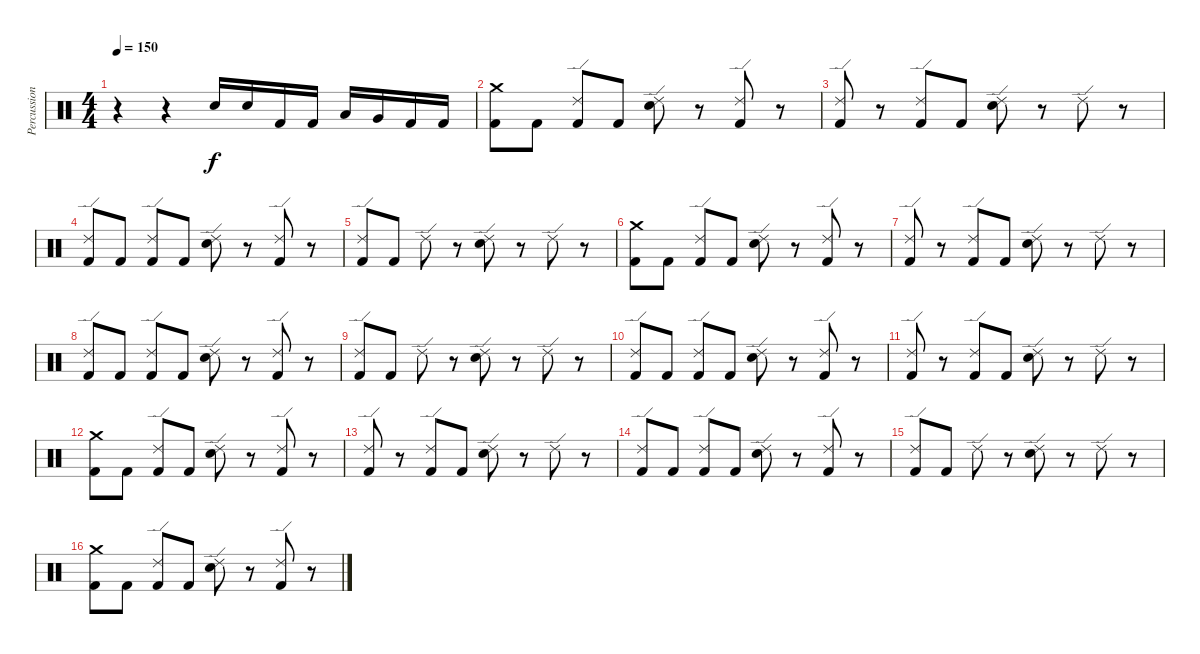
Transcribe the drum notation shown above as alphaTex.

\track ("Percussion" "Percussion") {instrument percussion}
\staff {score}
\articulation defaults
\ts (4 4)
\tempo 150
\clef neutral
\ks c
r.4{dy f} r.4 "Electric Snare (hit)".16 "Electric Snare (hit)".16 "Kick (hit) 2".16 "Kick (hit) 2".16 "Low Tom (hit)".16 "Very Low Tom (hit)".16 "Kick (hit) 2".16 "Kick (hit) 2".16 |
("Crash medium (hit)" "Kick (hit) 2").8 "Kick (hit) 2".8 ("Ride (edge) 2" "Kick (hit) 2").8 "Kick (hit) 2".8 ("Ride (edge) 2" "Electric Snare (hit)").8 r.8 ("Ride (edge) 2" "Kick (hit) 2").8 r.8 |
("Ride (edge) 2" "Kick (hit) 2").8 r.8 ("Ride (edge) 2" "Kick (hit) 2").8 "Kick (hit) 2".8 ("Ride (edge) 2" "Electric Snare (hit)").8 r.8 "Ride (edge) 2".8 r.8 |
("Ride (edge) 2" "Kick (hit) 2").8 "Kick (hit) 2".8 ("Ride (edge) 2" "Kick (hit) 2").8 "Kick (hit) 2".8 ("Ride (edge) 2" "Electric Snare (hit)").8 r.8 ("Ride (edge) 2" "Kick (hit) 2").8 r.8 |
("Ride (edge) 2" "Kick (hit) 2").8 "Kick (hit) 2".8 "Ride (edge) 2".8 r.8 ("Ride (edge) 2" "Electric Snare (hit)").8 r.8 "Ride (edge) 2".8 r.8 |
("Crash medium (hit)" "Kick (hit) 2").8 "Kick (hit) 2".8 ("Ride (edge) 2" "Kick (hit) 2").8 "Kick (hit) 2".8 ("Ride (edge) 2" "Electric Snare (hit)").8 r.8 ("Ride (edge) 2" "Kick (hit) 2").8 r.8 |
("Ride (edge) 2" "Kick (hit) 2").8 r.8 ("Ride (edge) 2" "Kick (hit) 2").8 "Kick (hit) 2".8 ("Ride (edge) 2" "Electric Snare (hit)").8 r.8 "Ride (edge) 2".8 r.8 |
("Ride (edge) 2" "Kick (hit) 2").8 "Kick (hit) 2".8 ("Ride (edge) 2" "Kick (hit) 2").8 "Kick (hit) 2".8 ("Ride (edge) 2" "Electric Snare (hit)").8 r.8 ("Ride (edge) 2" "Kick (hit) 2").8 r.8 |
("Ride (edge) 2" "Kick (hit) 2").8 "Kick (hit) 2".8 "Ride (edge) 2".8 r.8 ("Ride (edge) 2" "Electric Snare (hit)").8 r.8 "Ride (edge) 2".8 r.8 |
("Ride (edge) 2" "Kick (hit) 2").8 "Kick (hit) 2".8 ("Ride (edge) 2" "Kick (hit) 2").8 "Kick (hit) 2".8 ("Ride (edge) 2" "Electric Snare (hit)").8 r.8 ("Ride (edge) 2" "Kick (hit) 2").8 r.8 |
("Ride (edge) 2" "Kick (hit) 2").8 r.8 ("Ride (edge) 2" "Kick (hit) 2").8 "Kick (hit) 2".8 ("Ride (edge) 2" "Electric Snare (hit)").8 r.8 "Ride (edge) 2".8 r.8 |
("Crash medium (hit)" "Kick (hit) 2").8 "Kick (hit) 2".8 ("Ride (edge) 2" "Kick (hit) 2").8 "Kick (hit) 2".8 ("Ride (edge) 2" "Electric Snare (hit)").8 r.8 ("Ride (edge) 2" "Kick (hit) 2").8 r.8 |
("Ride (edge) 2" "Kick (hit) 2").8 r.8 ("Ride (edge) 2" "Kick (hit) 2").8 "Kick (hit) 2".8 ("Ride (edge) 2" "Electric Snare (hit)").8 r.8 "Ride (edge) 2".8 r.8 |
("Ride (edge) 2" "Kick (hit) 2").8 "Kick (hit) 2".8 ("Ride (edge) 2" "Kick (hit) 2").8 "Kick (hit) 2".8 ("Ride (edge) 2" "Electric Snare (hit)").8 r.8 ("Ride (edge) 2" "Kick (hit) 2").8 r.8 |
("Ride (edge) 2" "Kick (hit) 2").8 "Kick (hit) 2".8 "Ride (edge) 2".8 r.8 ("Ride (edge) 2" "Electric Snare (hit)").8 r.8 "Ride (edge) 2".8 r.8 |
("Crash medium (hit)" "Kick (hit) 2").8 "Kick (hit) 2".8 ("Ride (edge) 2" "Kick (hit) 2").8 "Kick (hit) 2".8 ("Ride (edge) 2" "Electric Snare (hit)").8 r.8 ("Ride (edge) 2" "Kick (hit) 2").8 r.8
